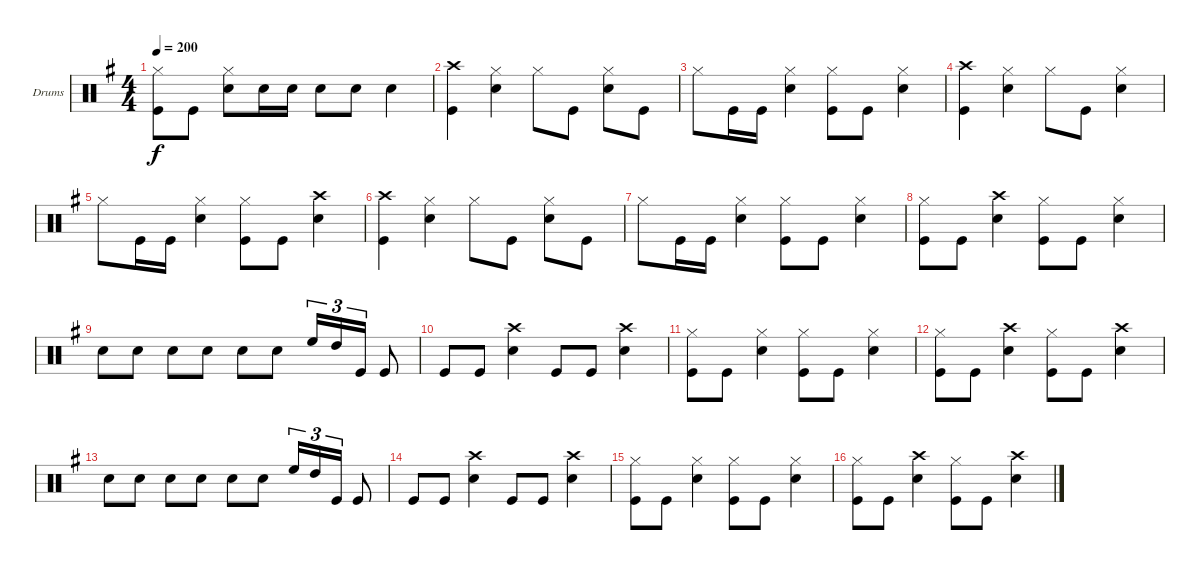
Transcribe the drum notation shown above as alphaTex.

\bracketExtendMode groupsimilarinstruments
\firstSystemTrackNameOrientation horizontal
\otherSystemsTrackNameOrientation horizontal
\track ("Drumkit" "Drums") {instrument percussion}
\staff {score}
\articulation defaults
\ts (4 4)
\tempo 200
\clef neutral
\ks g
("Kick (hit)" "Hi-Hat (closed)").8{dy f} "Kick (hit)".8 ("Snare (hit) 2" "Hi-Hat (closed)").8 "Snare (hit) 2".16 "Snare (hit) 2".16 "Snare (hit) 2".8 "Snare (hit) 2".8 "Snare (hit) 2".4 |
("Kick (hit)" "Crash high (hit)").4 ("Hi-Hat (closed)" "Snare (hit) 2").4 "Hi-Hat (closed)".8 "Kick (hit)".8 ("Snare (hit) 2" "Hi-Hat (closed)").8 "Kick (hit)".8 |
"Hi-Hat (closed)".8 "Kick (hit)".16 "Kick (hit)".16 ("Snare (hit) 2" "Hi-Hat (closed)").4 ("Kick (hit)" "Hi-Hat (closed)").8 "Kick (hit)".8 ("Snare (hit) 2" "Hi-Hat (closed)").4 |
("Kick (hit)" "Crash high (hit)").4 ("Hi-Hat (closed)" "Snare (hit) 2").4 "Hi-Hat (closed)".8 "Kick (hit)".8 ("Snare (hit) 2" "Hi-Hat (closed)").4 |
"Hi-Hat (closed)".8 "Kick (hit)".16 "Kick (hit)".16 ("Snare (hit) 2" "Hi-Hat (closed)").4 ("Kick (hit)" "Hi-Hat (closed)").8 "Kick (hit)".8 ("Crash high (hit)" "Snare (hit) 2").4 |
("Kick (hit)" "Crash high (hit)").4 ("Hi-Hat (closed)" "Snare (hit) 2").4 "Hi-Hat (closed)".8 "Kick (hit)".8 ("Snare (hit) 2" "Hi-Hat (closed)").8 "Kick (hit)".8 |
"Hi-Hat (closed)".8 "Kick (hit)".16 "Kick (hit)".16 ("Snare (hit) 2" "Hi-Hat (closed)").4 ("Kick (hit)" "Hi-Hat (closed)").8 "Kick (hit)".8 ("Snare (hit) 2" "Hi-Hat (closed)").4 |
("Kick (hit)" "Hi-Hat (closed)").8 "Kick (hit)".8 ("Snare (hit) 2" "Crash high (hit)").4 ("Kick (hit)" "Hi-Hat (closed)").8 "Kick (hit)".8 ("Snare (hit) 2" "Hi-Hat (closed)").4 |
"Snare (hit) 2".8 "Snare (hit) 2".8 "Snare (hit) 2".8 "Snare (hit) 2".8 "Snare (hit) 2".8 "Snare (hit) 2".8 "High Floor Tom (hit)".16{tu (3 2)} "High Tom (hit)".16{tu (3 2)} "Kick (hit)".16{tu (3 2)} "Kick (hit)".8 |
"Kick (hit)".8 "Kick (hit)".8 ("Crash high (hit)" "Snare (hit) 2").4 "Kick (hit)".8 "Kick (hit)".8 ("Crash high (hit)" "Snare (hit) 2").4 |
("Kick (hit)" "Hi-Hat (closed)").8 "Kick (hit)".8 ("Snare (hit) 2" "Hi-Hat (closed)").4 ("Kick (hit)" "Hi-Hat (closed)").8 "Kick (hit)".8 ("Snare (hit) 2" "Hi-Hat (closed)").4 |
("Kick (hit)" "Hi-Hat (closed)").8 "Kick (hit)".8 ("Snare (hit) 2" "Crash high (hit)").4 ("Kick (hit)" "Hi-Hat (closed)").8 "Kick (hit)".8 ("Crash high (hit)" "Snare (hit) 2").4 |
"Snare (hit) 2".8 "Snare (hit) 2".8 "Snare (hit) 2".8 "Snare (hit) 2".8 "Snare (hit) 2".8 "Snare (hit) 2".8 "High Floor Tom (hit)".16{tu (3 2)} "High Tom (hit)".16{tu (3 2)} "Kick (hit)".16{tu (3 2)} "Kick (hit)".8 |
"Kick (hit)".8 "Kick (hit)".8 ("Crash high (hit)" "Snare (hit) 2").4 "Kick (hit)".8 "Kick (hit)".8 ("Crash high (hit)" "Snare (hit) 2").4 |
("Kick (hit)" "Hi-Hat (closed)").8 "Kick (hit)".8 ("Snare (hit) 2" "Hi-Hat (closed)").4 ("Kick (hit)" "Hi-Hat (closed)").8 "Kick (hit)".8 ("Snare (hit) 2" "Hi-Hat (closed)").4 |
("Kick (hit)" "Hi-Hat (closed)").8 "Kick (hit)".8 ("Snare (hit) 2" "Crash high (hit)").4 ("Kick (hit)" "Hi-Hat (closed)").8 "Kick (hit)".8 ("Crash high (hit)" "Snare (hit) 2").4
